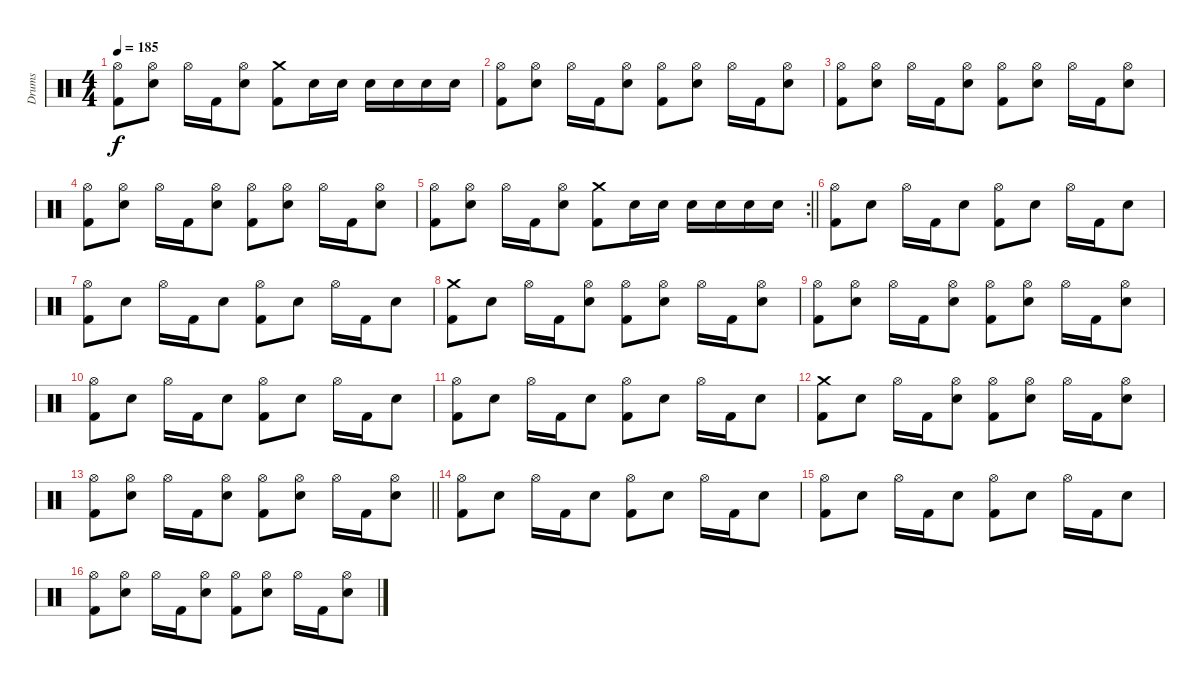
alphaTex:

\track ("Drums" "Drums") {instrument percussion}
\staff {score}
\articulation defaults
\ts (4 4)
\tempo 185
\clef neutral
\ks c
("Hi-Hat (open)" "Kick (hit) 2").8{dy f} ("Hi-Hat (open)" "Electric Snare (hit)").8 "Hi-Hat (open)".16 "Kick (hit) 2".16 ("Hi-Hat (open)" "Electric Snare (hit)").8 ("Crash medium (hit)" "Kick (hit) 2").8 "Electric Snare (hit)".16 "Electric Snare (hit)".16 "Electric Snare (hit)".16 "Electric Snare (hit)".16 "Electric Snare (hit)".16 "Electric Snare (hit)".16 |
("Hi-Hat (open)" "Kick (hit) 2").8 ("Hi-Hat (open)" "Electric Snare (hit)").8 "Hi-Hat (open)".16 "Kick (hit) 2".16 ("Hi-Hat (open)" "Electric Snare (hit)").8 ("Hi-Hat (open)" "Kick (hit) 2").8 ("Hi-Hat (open)" "Electric Snare (hit)").8 "Hi-Hat (open)".16 "Kick (hit) 2".16 ("Hi-Hat (open)" "Electric Snare (hit)").8 |
("Hi-Hat (open)" "Kick (hit) 2").8 ("Hi-Hat (open)" "Electric Snare (hit)").8 "Hi-Hat (open)".16 "Kick (hit) 2".16 ("Hi-Hat (open)" "Electric Snare (hit)").8 ("Hi-Hat (open)" "Kick (hit) 2").8 ("Hi-Hat (open)" "Electric Snare (hit)").8 "Hi-Hat (open)".16 "Kick (hit) 2".16 ("Hi-Hat (open)" "Electric Snare (hit)").8 |
("Hi-Hat (open)" "Kick (hit) 2").8 ("Hi-Hat (open)" "Electric Snare (hit)").8 "Hi-Hat (open)".16 "Kick (hit) 2".16 ("Hi-Hat (open)" "Electric Snare (hit)").8 ("Hi-Hat (open)" "Kick (hit) 2").8 ("Hi-Hat (open)" "Electric Snare (hit)").8 "Hi-Hat (open)".16 "Kick (hit) 2".16 ("Hi-Hat (open)" "Electric Snare (hit)").8 |
\rc 2
\barLineRight lightlight
("Hi-Hat (open)" "Kick (hit) 2").8 ("Hi-Hat (open)" "Electric Snare (hit)").8 "Hi-Hat (open)".16 "Kick (hit) 2".16 ("Hi-Hat (open)" "Electric Snare (hit)").8 ("Crash medium (hit)" "Kick (hit) 2").8 "Electric Snare (hit)".16 "Electric Snare (hit)".16 "Electric Snare (hit)".16 "Electric Snare (hit)".16 "Electric Snare (hit)".16 "Electric Snare (hit)".16 |
("Hi-Hat (open)" "Kick (hit) 2").8 "Electric Snare (hit)".8 "Hi-Hat (open)".16 "Kick (hit) 2".16 "Electric Snare (hit)".8 ("Hi-Hat (open)" "Kick (hit) 2").8 "Electric Snare (hit)".8 "Hi-Hat (open)".16 "Kick (hit) 2".16 "Electric Snare (hit)".8 |
("Hi-Hat (open)" "Kick (hit) 2").8 "Electric Snare (hit)".8 "Hi-Hat (open)".16 "Kick (hit) 2".16 "Electric Snare (hit)".8 ("Hi-Hat (open)" "Kick (hit) 2").8 "Electric Snare (hit)".8 "Hi-Hat (open)".16 "Kick (hit) 2".16 "Electric Snare (hit)".8 |
("Crash medium (hit)" "Kick (hit) 2").8 "Electric Snare (hit)".8 "Hi-Hat (open)".16 "Kick (hit) 2".16 ("Hi-Hat (open)" "Electric Snare (hit)").8 ("Hi-Hat (open)" "Kick (hit) 2").8 ("Hi-Hat (open)" "Electric Snare (hit)").8 "Hi-Hat (open)".16 "Kick (hit) 2".16 ("Hi-Hat (open)" "Electric Snare (hit)").8 |
("Hi-Hat (open)" "Kick (hit) 2").8 ("Hi-Hat (open)" "Electric Snare (hit)").8 "Hi-Hat (open)".16 "Kick (hit) 2".16 ("Hi-Hat (open)" "Electric Snare (hit)").8 ("Hi-Hat (open)" "Kick (hit) 2").8 ("Hi-Hat (open)" "Electric Snare (hit)").8 "Hi-Hat (open)".16 "Kick (hit) 2".16 ("Hi-Hat (open)" "Electric Snare (hit)").8 |
("Hi-Hat (open)" "Kick (hit) 2").8 "Electric Snare (hit)".8 "Hi-Hat (open)".16 "Kick (hit) 2".16 "Electric Snare (hit)".8 ("Hi-Hat (open)" "Kick (hit) 2").8 "Electric Snare (hit)".8 "Hi-Hat (open)".16 "Kick (hit) 2".16 "Electric Snare (hit)".8 |
("Hi-Hat (open)" "Kick (hit) 2").8 "Electric Snare (hit)".8 "Hi-Hat (open)".16 "Kick (hit) 2".16 "Electric Snare (hit)".8 ("Hi-Hat (open)" "Kick (hit) 2").8 "Electric Snare (hit)".8 "Hi-Hat (open)".16 "Kick (hit) 2".16 "Electric Snare (hit)".8 |
("Crash medium (hit)" "Kick (hit) 2").8 "Electric Snare (hit)".8 "Hi-Hat (open)".16 "Kick (hit) 2".16 ("Hi-Hat (open)" "Electric Snare (hit)").8 ("Hi-Hat (open)" "Kick (hit) 2").8 ("Hi-Hat (open)" "Electric Snare (hit)").8 "Hi-Hat (open)".16 "Kick (hit) 2".16 ("Hi-Hat (open)" "Electric Snare (hit)").8 |
\barLineRight lightlight
("Hi-Hat (open)" "Kick (hit) 2").8 ("Hi-Hat (open)" "Electric Snare (hit)").8 "Hi-Hat (open)".16 "Kick (hit) 2".16 ("Hi-Hat (open)" "Electric Snare (hit)").8 ("Hi-Hat (open)" "Kick (hit) 2").8 ("Hi-Hat (open)" "Electric Snare (hit)").8 "Hi-Hat (open)".16 "Kick (hit) 2".16 ("Hi-Hat (open)" "Electric Snare (hit)").8 |
("Hi-Hat (open)" "Kick (hit) 2").8 "Electric Snare (hit)".8 "Hi-Hat (open)".16 "Kick (hit) 2".16 "Electric Snare (hit)".8 ("Hi-Hat (open)" "Kick (hit) 2").8 "Electric Snare (hit)".8 "Hi-Hat (open)".16 "Kick (hit) 2".16 "Electric Snare (hit)".8 |
("Hi-Hat (open)" "Kick (hit) 2").8 "Electric Snare (hit)".8 "Hi-Hat (open)".16 "Kick (hit) 2".16 "Electric Snare (hit)".8 ("Hi-Hat (open)" "Kick (hit) 2").8 "Electric Snare (hit)".8 "Hi-Hat (open)".16 "Kick (hit) 2".16 "Electric Snare (hit)".8 |
("Hi-Hat (open)" "Kick (hit) 2").8 ("Hi-Hat (open)" "Electric Snare (hit)").8 "Hi-Hat (open)".16 "Kick (hit) 2".16 ("Hi-Hat (open)" "Electric Snare (hit)").8 ("Hi-Hat (open)" "Kick (hit) 2").8 ("Hi-Hat (open)" "Electric Snare (hit)").8 "Hi-Hat (open)".16 "Kick (hit) 2".16 ("Hi-Hat (open)" "Electric Snare (hit)").8
